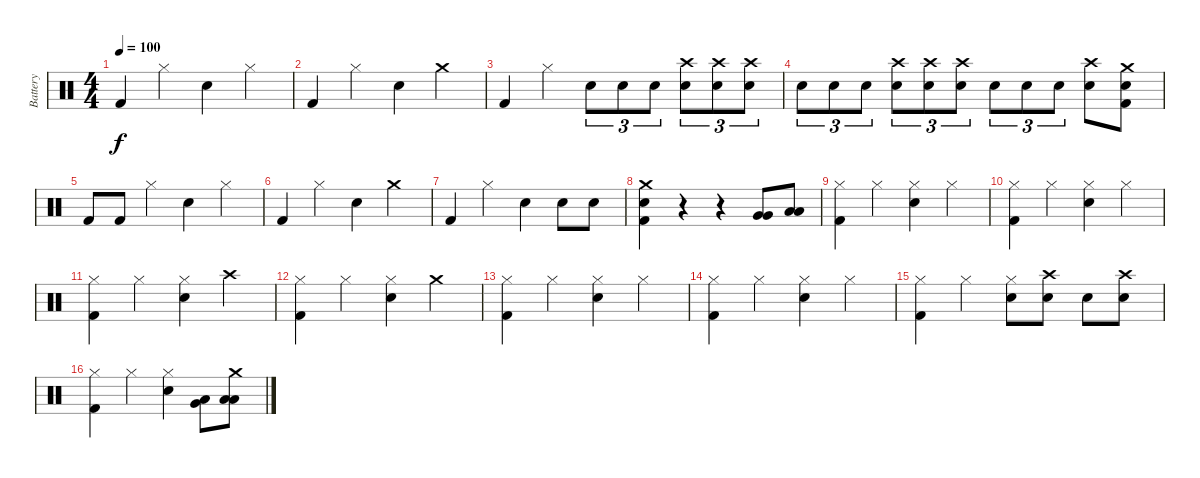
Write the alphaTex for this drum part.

\track ("Battery" "Battery") {instrument percussion}
\staff {score}
\articulation defaults
\ts (4 4)
\tempo 100
\clef neutral
\ks c "Kick (hit) 2".4{dy f} "Hi-Hat (closed)".4 "Snare (hit) 2".4 "Hi-Hat (closed)".4
|
"Kick (hit) 2".4 "Hi-Hat (closed)".4 "Snare (hit) 2".4 "Crash medium (hit)".4 |
"Kick (hit) 2".4 "Hi-Hat (closed)".4 "Snare (hit) 2".8{tu (3 2)} "Snare (hit) 2".8{tu (3 2)} "Snare (hit) 2".8{tu (3 2)} ("Snare (hit) 2" "Crash high (hit)").8{tu (3 2)} ("Snare (hit) 2" "Crash high (hit)").8{tu (3 2)} ("Snare (hit) 2" "Crash high (hit)").8{tu (3 2)} |
"Snare (hit) 2".8{tu (3 2)} "Snare (hit) 2".8{tu (3 2)} "Snare (hit) 2".8{tu (3 2)} ("Snare (hit) 2" "Crash high (hit)").8{tu (3 2)} ("Snare (hit) 2" "Crash high (hit)").8{tu (3 2)} ("Snare (hit) 2" "Crash high (hit)").8{tu (3 2)} "Snare (hit) 2".8{tu (3 2)} "Snare (hit) 2".8{tu (3 2)} "Snare (hit) 2".8{tu (3 2)} ("Snare (hit) 2" "Crash high (hit)").8 ("Snare (hit) 2" "Kick (hit) 2" "Crash medium (hit)").8 |
"Kick (hit) 2".8 "Kick (hit) 2".8 "Hi-Hat (closed)".4 "Snare (hit) 2".4 "Hi-Hat (closed)".4 |
"Kick (hit) 2".4 "Hi-Hat (closed)".4 "Snare (hit) 2".4 "Crash medium (hit)".4 |
"Kick (hit) 2".4 "Hi-Hat (closed)".4 "Snare (hit) 2".4 "Snare (hit) 2".8 "Snare (hit) 2".8 |
("Kick (hit) 2" "Snare (hit) 2" "Crash medium (hit)").4 r.4 r.4 ("Very Low Tom (hit)" "Very Low Tom (hit)").8 ("Low Floor Tom (hit)" "Low Floor Tom (hit)").8 |
("Kick (hit) 2" "Hi-Hat (closed)").4 "Hi-Hat (closed)".4 ("Snare (hit) 2" "Hi-Hat (closed)").4 "Hi-Hat (closed)".4 |
("Kick (hit) 2" "Hi-Hat (closed)").4 "Hi-Hat (closed)".4 ("Snare (hit) 2" "Hi-Hat (closed)").4 "Hi-Hat (closed)".4 |
("Kick (hit) 2" "Hi-Hat (closed)").4 "Hi-Hat (closed)".4 ("Snare (hit) 2" "Hi-Hat (closed)").4 "Crash high (hit)".4 |
("Kick (hit) 2" "Hi-Hat (closed)").4 "Hi-Hat (closed)".4 ("Snare (hit) 2" "Hi-Hat (closed)").4 "Crash medium (hit)".4 |
("Kick (hit) 2" "Hi-Hat (closed)").4 "Hi-Hat (closed)".4 ("Snare (hit) 2" "Hi-Hat (closed)").4 "Hi-Hat (closed)".4 |
("Kick (hit) 2" "Hi-Hat (closed)").4 "Hi-Hat (closed)".4 ("Snare (hit) 2" "Hi-Hat (closed)").4 "Hi-Hat (closed)".4 |
("Kick (hit) 2" "Hi-Hat (closed)").4 "Hi-Hat (closed)".4 ("Snare (hit) 2" "Hi-Hat (closed)").8 ("Crash high (hit)" "Snare (hit) 2").8 "Snare (hit) 2".8 ("Snare (hit) 2" "Crash high (hit)").8 |
("Kick (hit) 2" "Hi-Hat (closed)").4 "Hi-Hat (closed)".4 ("Snare (hit) 2" "Hi-Hat (closed)").4 ("Very Low Tom (hit)" "Low Floor Tom (hit)").8 ("Low Floor Tom (hit)" "Low Floor Tom (hit)" "Crash medium (hit)").8
